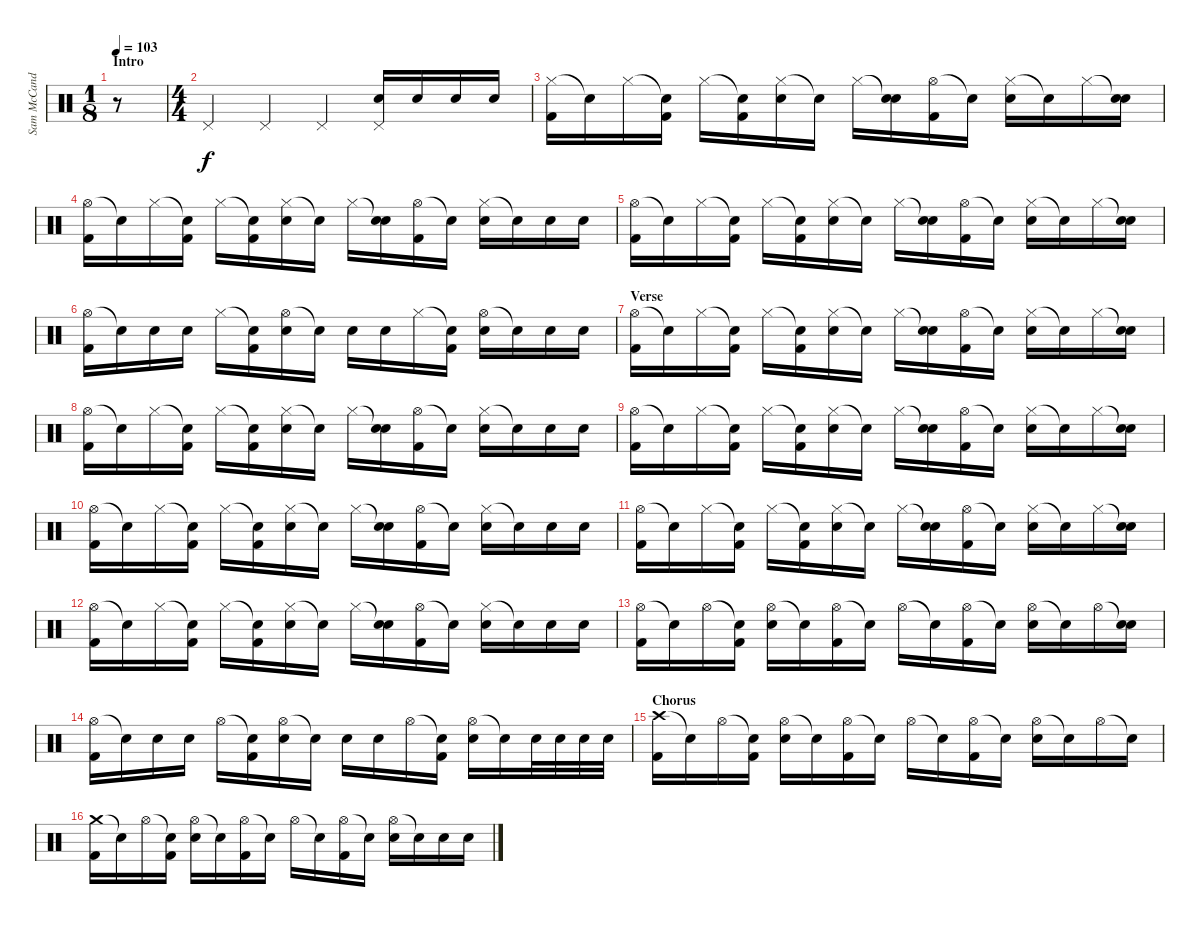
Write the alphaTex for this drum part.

\track ("Sam McCandless (Drums)" "Sam McCand") {instrument percussion}
\staff {score}
\articulation defaults
\ts (1 8)
\section ("" "Intro")
\tempo 103
\clef neutral
\ks c
r.8{dy f} |
\ts (4 4)
"Pedal Hi-Hat (hit)".4 "Pedal Hi-Hat (hit)".4 "Pedal Hi-Hat (hit)".4 ("Electric Snare (hit)" "Pedal Hi-Hat (hit)").16 "Electric Snare (hit)".16 "Electric Snare (hit)".16 "Electric Snare (hit)".16 |
("Hi-Hat (closed)" "Kick (hit) 2").16 "Snare (hit)"{t}.16 "Hi-Hat (closed)".16 ("Snare (hit)"{t} "Kick (hit) 2").16 "Hi-Hat (closed)".16 ("Snare (hit)"{t} "Kick (hit) 2").16 ("Hi-Hat (closed)" "Electric Snare (hit)").16 "Snare (hit)"{t}.16 "Hi-Hat (closed)".16 ("Snare (hit)"{t} "Electric Snare (hit)").16 ("Hi-Hat (open)" "Kick (hit) 2").16 "Snare (hit)"{t}.16 ("Hi-Hat (closed)" "Electric Snare (hit)").16 "Snare (hit)"{t}.16 "Hi-Hat (closed)".16 ("Snare (hit)"{t} "Electric Snare (hit)").16 |
("Hi-Hat (open)" "Kick (hit) 2").16 "Snare (hit)"{t}.16 "Hi-Hat (closed)".16 ("Snare (hit)"{t} "Kick (hit) 2").16 "Hi-Hat (closed)".16 ("Snare (hit)"{t} "Kick (hit) 2").16 ("Hi-Hat (closed)" "Electric Snare (hit)").16 "Snare (hit)"{t}.16 "Hi-Hat (closed)".16 ("Snare (hit)"{t} "Electric Snare (hit)").16 ("Hi-Hat (open)" "Kick (hit) 2").16 "Snare (hit)"{t}.16 ("Hi-Hat (closed)" "Electric Snare (hit)").16 "Snare (hit)"{t}.16 "Electric Snare (hit)".16 "Electric Snare (hit)".16 |
("Hi-Hat (open)" "Kick (hit) 2").16 "Snare (hit)"{t}.16 "Hi-Hat (closed)".16 ("Snare (hit)"{t} "Kick (hit) 2").16 "Hi-Hat (closed)".16 ("Snare (hit)"{t} "Kick (hit) 2").16 ("Hi-Hat (closed)" "Electric Snare (hit)").16 "Snare (hit)"{t}.16 "Hi-Hat (closed)".16 ("Snare (hit)"{t} "Electric Snare (hit)").16 ("Hi-Hat (open)" "Kick (hit) 2").16 "Snare (hit)"{t}.16 ("Hi-Hat (closed)" "Electric Snare (hit)").16 "Snare (hit)"{t}.16 "Hi-Hat (closed)".16 ("Snare (hit)"{t} "Electric Snare (hit)").16 |
("Hi-Hat (open)" "Kick (hit) 2").16 "Snare (hit)"{t}.16 "Electric Snare (hit)".16 "Electric Snare (hit)".16 "Hi-Hat (closed)".16 ("Snare (hit)"{t} "Kick (hit) 2").16 ("Hi-Hat (open)" "Electric Snare (hit)").16 "Snare (hit)"{t}.16 "Electric Snare (hit)".16 "Electric Snare (hit)".16 "Hi-Hat (closed)".16 ("Snare (hit)"{t} "Kick (hit) 2").16 ("Hi-Hat (open)" "Electric Snare (hit)").16 "Snare (hit)"{t}.16 "Electric Snare (hit)".16 "Electric Snare (hit)".16 |
\section ("" "Verse")
("Hi-Hat (open)" "Kick (hit) 2").16 "Snare (hit)"{t}.16 "Hi-Hat (closed)".16 ("Snare (hit)"{t} "Kick (hit) 2").16 "Hi-Hat (closed)".16 ("Snare (hit)"{t} "Kick (hit) 2").16 ("Hi-Hat (closed)" "Electric Snare (hit)").16 "Snare (hit)"{t}.16 "Hi-Hat (closed)".16 ("Snare (hit)"{t} "Electric Snare (hit)").16 ("Hi-Hat (open)" "Kick (hit) 2").16 "Snare (hit)"{t}.16 ("Hi-Hat (closed)" "Electric Snare (hit)").16 "Snare (hit)"{t}.16 "Hi-Hat (closed)".16 ("Snare (hit)"{t} "Electric Snare (hit)").16 |
("Hi-Hat (open)" "Kick (hit) 2").16 "Snare (hit)"{t}.16 "Hi-Hat (closed)".16 ("Snare (hit)"{t} "Kick (hit) 2").16 "Hi-Hat (closed)".16 ("Snare (hit)"{t} "Kick (hit) 2").16 ("Hi-Hat (closed)" "Electric Snare (hit)").16 "Snare (hit)"{t}.16 "Hi-Hat (closed)".16 ("Snare (hit)"{t} "Electric Snare (hit)").16 ("Hi-Hat (open)" "Kick (hit) 2").16 "Snare (hit)"{t}.16 ("Hi-Hat (closed)" "Electric Snare (hit)").16 "Snare (hit)"{t}.16 "Electric Snare (hit)".16 "Electric Snare (hit)".16 |
("Hi-Hat (open)" "Kick (hit) 2").16 "Snare (hit)"{t}.16 "Hi-Hat (closed)".16 ("Snare (hit)"{t} "Kick (hit) 2").16 "Hi-Hat (closed)".16 ("Snare (hit)"{t} "Kick (hit) 2").16 ("Hi-Hat (closed)" "Electric Snare (hit)").16 "Snare (hit)"{t}.16 "Hi-Hat (closed)".16 ("Snare (hit)"{t} "Electric Snare (hit)").16 ("Hi-Hat (open)" "Kick (hit) 2").16 "Snare (hit)"{t}.16 ("Hi-Hat (closed)" "Electric Snare (hit)").16 "Snare (hit)"{t}.16 "Hi-Hat (closed)".16 ("Snare (hit)"{t} "Electric Snare (hit)").16 |
("Hi-Hat (open)" "Kick (hit) 2").16 "Snare (hit)"{t}.16 "Hi-Hat (closed)".16 ("Snare (hit)"{t} "Kick (hit) 2").16 "Hi-Hat (closed)".16 ("Snare (hit)"{t} "Kick (hit) 2").16 ("Hi-Hat (closed)" "Electric Snare (hit)").16 "Snare (hit)"{t}.16 "Hi-Hat (closed)".16 ("Snare (hit)"{t} "Electric Snare (hit)").16 ("Hi-Hat (open)" "Kick (hit) 2").16 "Snare (hit)"{t}.16 ("Hi-Hat (closed)" "Electric Snare (hit)").16 "Snare (hit)"{t}.16 "Electric Snare (hit)".16 "Electric Snare (hit)".16 |
("Hi-Hat (open)" "Kick (hit) 2").16 "Snare (hit)"{t}.16 "Hi-Hat (closed)".16 ("Snare (hit)"{t} "Kick (hit) 2").16 "Hi-Hat (closed)".16 ("Snare (hit)"{t} "Kick (hit) 2").16 ("Hi-Hat (closed)" "Electric Snare (hit)").16 "Snare (hit)"{t}.16 "Hi-Hat (closed)".16 ("Snare (hit)"{t} "Electric Snare (hit)").16 ("Hi-Hat (open)" "Kick (hit) 2").16 "Snare (hit)"{t}.16 ("Hi-Hat (closed)" "Electric Snare (hit)").16 "Snare (hit)"{t}.16 "Hi-Hat (closed)".16 ("Snare (hit)"{t} "Electric Snare (hit)").16 |
("Hi-Hat (open)" "Kick (hit) 2").16 "Snare (hit)"{t}.16 "Hi-Hat (closed)".16 ("Snare (hit)"{t} "Kick (hit) 2").16 "Hi-Hat (closed)".16 ("Snare (hit)"{t} "Kick (hit) 2").16 ("Hi-Hat (closed)" "Electric Snare (hit)").16 "Snare (hit)"{t}.16 "Hi-Hat (closed)".16 ("Snare (hit)"{t} "Electric Snare (hit)").16 ("Hi-Hat (open)" "Kick (hit) 2").16 "Snare (hit)"{t}.16 ("Hi-Hat (closed)" "Electric Snare (hit)").16 "Snare (hit)"{t}.16 "Electric Snare (hit)".16 "Electric Snare (hit)".16 |
("Hi-Hat (open)" "Kick (hit) 2").16 "Snare (hit)"{t}.16 "Hi-Hat (open)".16 ("Snare (hit)"{t} "Kick (hit) 2").16 ("Hi-Hat (open)" "Electric Snare (hit)").16 "Snare (hit)"{t}.16 ("Hi-Hat (open)" "Kick (hit) 2").16 "Snare (hit)"{t}.16 "Hi-Hat (open)".16 "Snare (hit)"{t}.16 ("Hi-Hat (open)" "Kick (hit) 2").16 "Snare (hit)"{t}.16 ("Hi-Hat (open)" "Electric Snare (hit)").16 "Snare (hit)"{t}.16 "Hi-Hat (open)".16 ("Snare (hit)"{t} "Electric Snare (hit)").16 |
("Hi-Hat (open)" "Kick (hit) 2").16 "Snare (hit)"{t}.16 "Electric Snare (hit)".16 "Electric Snare (hit)".16 "Hi-Hat (open)".16 ("Snare (hit)"{t} "Kick (hit) 2").16 ("Hi-Hat (open)" "Electric Snare (hit)").16 "Snare (hit)"{t}.16 "Electric Snare (hit)".16 "Electric Snare (hit)".16 "Hi-Hat (open)".16 ("Snare (hit)"{t} "Kick (hit) 2").16 ("Hi-Hat (open)" "Electric Snare (hit)").16 "Snare (hit)"{t}.16 "Electric Snare (hit)".32 "Electric Snare (hit)".32 "Electric Snare (hit)".32 "Electric Snare (hit)".32 |
\section ("" "Chorus")
("Crash high (hit)" "Kick (hit) 2").16 "Snare (hit)"{t}.16 "Hi-Hat (open)".16 ("Snare (hit)"{t} "Kick (hit) 2").16 ("Hi-Hat (open)" "Electric Snare (hit)").16 "Snare (hit)"{t}.16 ("Hi-Hat (open)" "Kick (hit) 2").16 "Snare (hit)"{t}.16 "Hi-Hat (open)".16 "Snare (hit)"{t}.16 ("Hi-Hat (open)" "Kick (hit) 2").16 "Snare (hit)"{t}.16 ("Hi-Hat (open)" "Electric Snare (hit)").16 "Snare (hit)"{t}.16 "Hi-Hat (open)".16 "Snare (hit)"{t}.16 |
("Crash medium (hit)" "Kick (hit) 2").16 "Snare (hit)"{t}.16 "Hi-Hat (open)".16 ("Snare (hit)"{t} "Kick (hit) 2").16 ("Hi-Hat (open)" "Electric Snare (hit)").16 "Snare (hit)"{t}.16 ("Hi-Hat (open)" "Kick (hit) 2").16 "Snare (hit)"{t}.16 "Hi-Hat (open)".16 "Snare (hit)"{t}.16 ("Hi-Hat (open)" "Kick (hit) 2").16 "Snare (hit)"{t}.16 ("Hi-Hat (open)" "Electric Snare (hit)").16 "Snare (hit)"{t}.16 "Electric Snare (hit)".16 "Electric Snare (hit)".16
